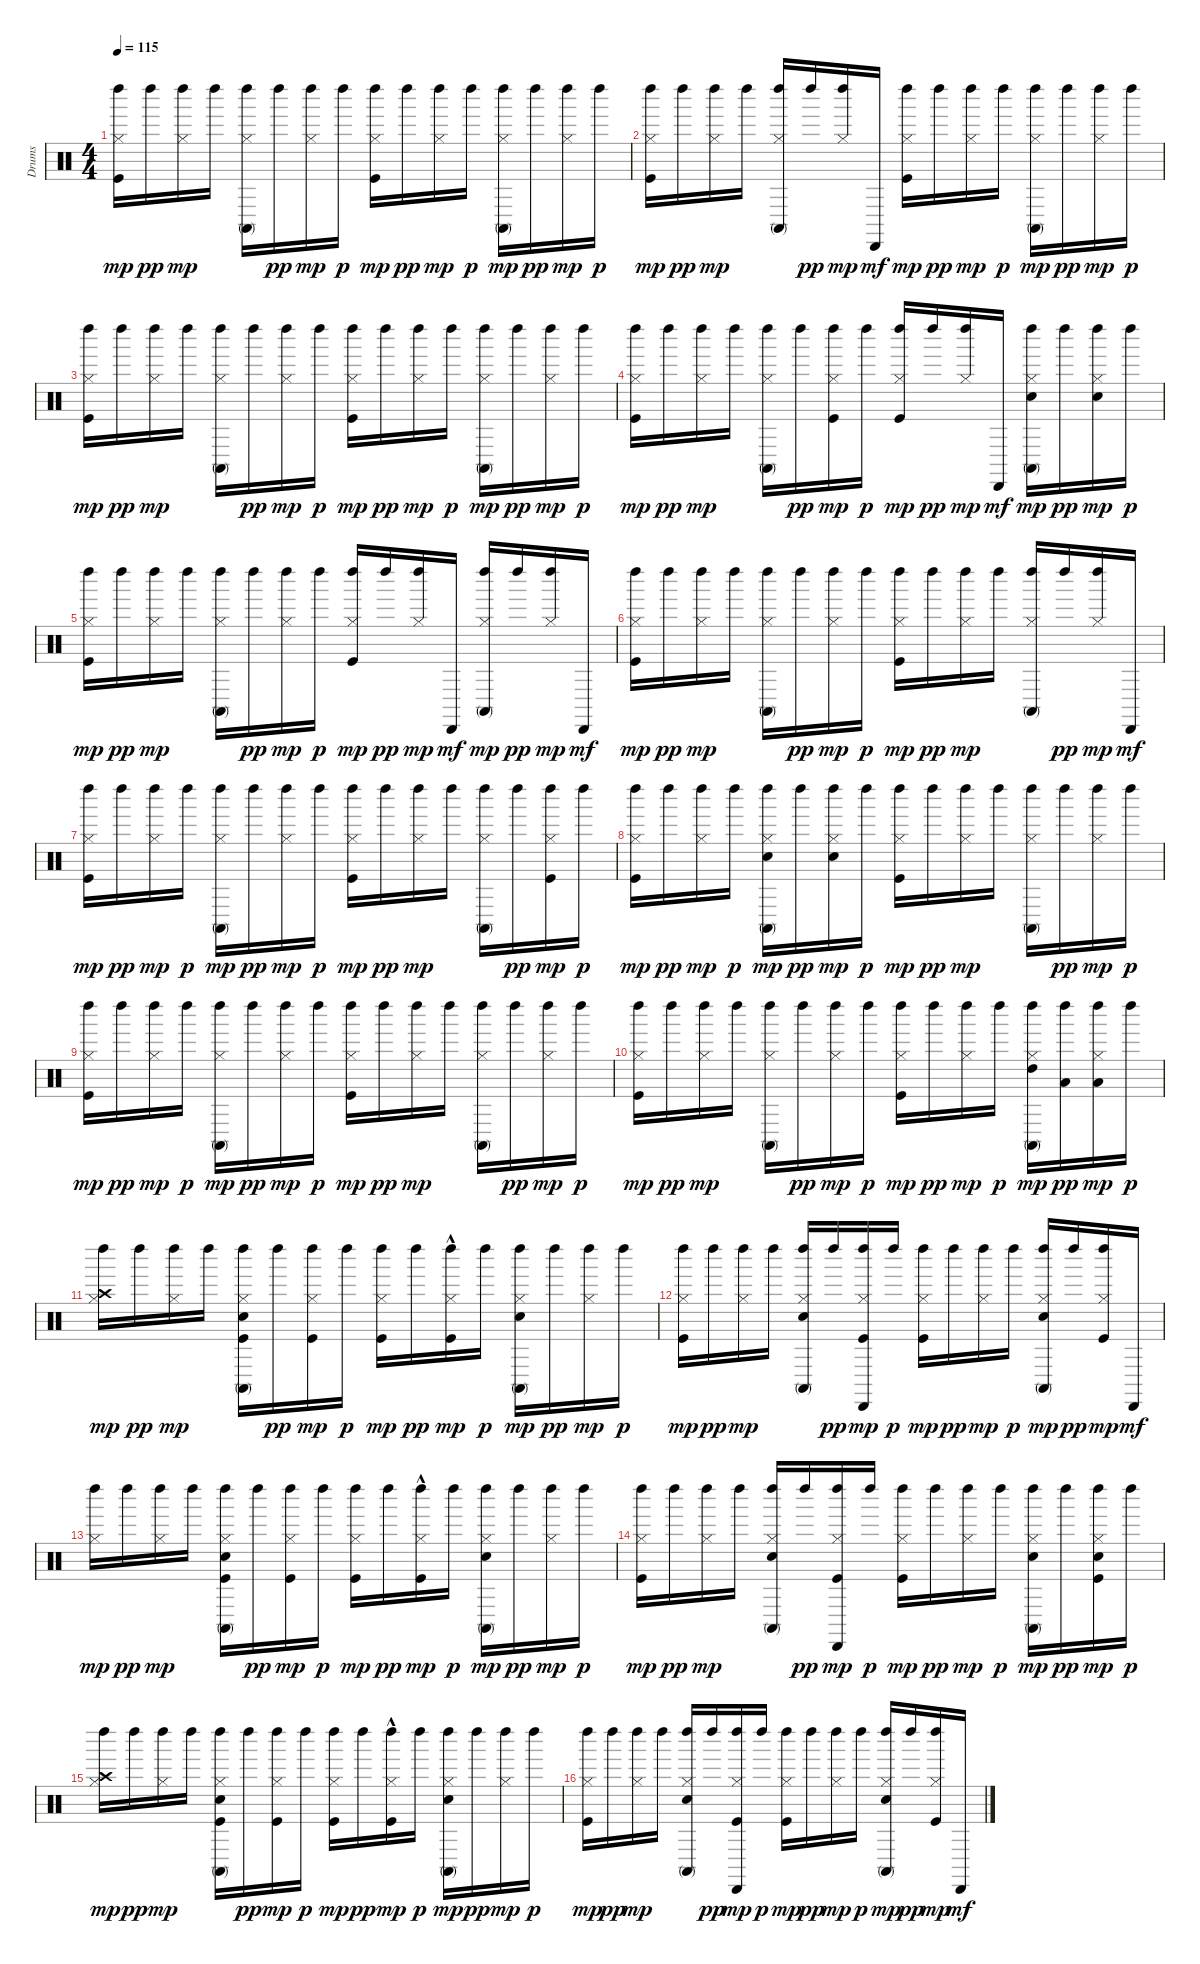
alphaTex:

\track ("Drums" "Drums") {instrument percussion}
\staff {score}
\articulation defaults
\ts (4 4)
\tempo 115
\clef neutral
\ks c
("Kick (hit)" "Hi-Hat (closed)" "Left Maraca (hit)").16{dy mp} "Left Maraca (hit)".16{dy pp} ("Hi-Hat (closed)" "Left Maraca (hit)").16{dy mp} "Left Maraca (hit)".16 ("Hi-Hat (closed)" "Conga high (mute)" "Left Maraca (hit)").16 "Left Maraca (hit)".16{dy pp} ("Hi-Hat (closed)" "Left Maraca (hit)").16{dy mp} "Left Maraca (hit)".16{dy p} ("Kick (hit)" "Hi-Hat (closed)" "Left Maraca (hit)").16{dy mp} "Left Maraca (hit)".16{dy pp} ("Hi-Hat (closed)" "Left Maraca (hit)").16{dy mp} "Left Maraca (hit)".16{dy p} ("Hi-Hat (closed)" "Conga high (mute)" "Left Maraca (hit)").16{dy mp} "Left Maraca (hit)".16{dy pp} ("Hi-Hat (closed)" "Left Maraca (hit)").16{dy mp} "Left Maraca (hit)".16{dy p} |
("Kick (hit)" "Hi-Hat (closed)" "Left Maraca (hit)").16{dy mp} "Left Maraca (hit)".16{dy pp} ("Hi-Hat (closed)" "Left Maraca (hit)").16{dy mp} "Left Maraca (hit)".16 ("Hi-Hat (closed)" "Conga high (mute)" "Left Maraca (hit)").16 "Left Maraca (hit)".16{dy pp} ("Hi-Hat (closed)" "Left Maraca (hit)").16{dy mp} "Cabasa (hit)".16{dy mf} ("Kick (hit)" "Hi-Hat (closed)" "Left Maraca (hit)").16{dy mp} "Left Maraca (hit)".16{dy pp} ("Hi-Hat (closed)" "Left Maraca (hit)").16{dy mp} "Left Maraca (hit)".16{dy p} ("Hi-Hat (closed)" "Conga high (mute)" "Left Maraca (hit)").16{dy mp} "Left Maraca (hit)".16{dy pp} ("Hi-Hat (closed)" "Left Maraca (hit)").16{dy mp} "Left Maraca (hit)".16{dy p} |
("Kick (hit)" "Hi-Hat (closed)" "Left Maraca (hit)").16{dy mp} "Left Maraca (hit)".16{dy pp} ("Hi-Hat (closed)" "Left Maraca (hit)").16{dy mp} "Left Maraca (hit)".16 ("Hi-Hat (closed)" "Conga high (mute)" "Left Maraca (hit)").16 "Left Maraca (hit)".16{dy pp} ("Hi-Hat (closed)" "Left Maraca (hit)").16{dy mp} "Left Maraca (hit)".16{dy p} ("Kick (hit)" "Hi-Hat (closed)" "Left Maraca (hit)").16{dy mp} "Left Maraca (hit)".16{dy pp} ("Hi-Hat (closed)" "Left Maraca (hit)").16{dy mp} "Left Maraca (hit)".16{dy p} ("Hi-Hat (closed)" "Conga high (mute)" "Left Maraca (hit)").16{dy mp} "Left Maraca (hit)".16{dy pp} ("Hi-Hat (closed)" "Left Maraca (hit)").16{dy mp} "Left Maraca (hit)".16{dy p} |
("Kick (hit)" "Hi-Hat (closed)" "Left Maraca (hit)").16{dy mp} "Left Maraca (hit)".16{dy pp} ("Hi-Hat (closed)" "Left Maraca (hit)").16{dy mp} "Left Maraca (hit)".16 ("Hi-Hat (closed)" "Conga high (mute)" "Left Maraca (hit)").16 "Left Maraca (hit)".16{dy pp} ("Kick (hit)" "Hi-Hat (closed)" "Left Maraca (hit)").16{dy mp} "Left Maraca (hit)".16{dy p} ("Kick (hit)" "Hi-Hat (closed)" "Left Maraca (hit)").16{dy mp} "Left Maraca (hit)".16{dy pp} ("Hi-Hat (closed)" "Left Maraca (hit)").16{dy mp} "Cabasa (hit)".16{dy mf} ("Snare (hit) 2" "Hi-Hat (closed)" "Conga high (mute)" "Left Maraca (hit)").16{dy mp} "Left Maraca (hit)".16{dy pp} ("Snare (hit) 2" "Hi-Hat (closed)" "Left Maraca (hit)").16{dy mp} "Left Maraca (hit)".16{dy p} |
("Kick (hit)" "Hi-Hat (closed)" "Left Maraca (hit)").16{dy mp} "Left Maraca (hit)".16{dy pp} ("Hi-Hat (closed)" "Left Maraca (hit)").16{dy mp} "Left Maraca (hit)".16 ("Hi-Hat (closed)" "Conga high (mute)" "Left Maraca (hit)").16 "Left Maraca (hit)".16{dy pp} ("Hi-Hat (closed)" "Left Maraca (hit)").16{dy mp} "Left Maraca (hit)".16{dy p} ("Kick (hit)" "Hi-Hat (closed)" "Left Maraca (hit)").16{dy mp} "Left Maraca (hit)".16{dy pp} ("Hi-Hat (closed)" "Left Maraca (hit)").16{dy mp} "Cabasa (hit)".16{dy mf} ("Hi-Hat (closed)" "Conga high (mute)" "Left Maraca (hit)").16{dy mp} "Left Maraca (hit)".16{dy pp} ("Hi-Hat (closed)" "Left Maraca (hit)").16{dy mp} "Cabasa (hit)".16{dy mf} |
("Kick (hit)" "Hi-Hat (closed)" "Left Maraca (hit)").16{dy mp} "Left Maraca (hit)".16{dy pp} ("Hi-Hat (closed)" "Left Maraca (hit)").16{dy mp} "Left Maraca (hit)".16 ("Hi-Hat (closed)" "Conga high (mute)" "Left Maraca (hit)").16 "Left Maraca (hit)".16{dy pp} ("Hi-Hat (closed)" "Left Maraca (hit)").16{dy mp} "Left Maraca (hit)".16{dy p} ("Kick (hit)" "Hi-Hat (closed)" "Left Maraca (hit)").16{dy mp} "Left Maraca (hit)".16{dy pp} ("Hi-Hat (closed)" "Left Maraca (hit)").16{dy mp} "Left Maraca (hit)".16 ("Hi-Hat (closed)" "Conga high (mute)" "Left Maraca (hit)").16 "Left Maraca (hit)".16{dy pp} ("Hi-Hat (closed)" "Left Maraca (hit)").16{dy mp} "Cabasa (hit)".16{dy mf} |
("Kick (hit)" "Hi-Hat (closed)" "Left Maraca (hit)").16{dy mp} "Left Maraca (hit)".16{dy pp} ("Hi-Hat (closed)" "Left Maraca (hit)").16{dy mp} "Left Maraca (hit)".16{dy p} ("Hi-Hat (closed)" "Conga high (mute)" "Left Maraca (hit)").16{dy mp} "Left Maraca (hit)".16{dy pp} ("Hi-Hat (closed)" "Left Maraca (hit)").16{dy mp} "Left Maraca (hit)".16{dy p} ("Kick (hit)" "Hi-Hat (closed)" "Left Maraca (hit)").16{dy mp} "Left Maraca (hit)".16{dy pp} ("Hi-Hat (closed)" "Left Maraca (hit)").16{dy mp} "Left Maraca (hit)".16 ("Hi-Hat (closed)" "Conga high (mute)" "Left Maraca (hit)").16 "Left Maraca (hit)".16{dy pp} ("Kick (hit)" "Hi-Hat (closed)" "Left Maraca (hit)").16{dy mp} "Left Maraca (hit)".16{dy p} |
("Kick (hit)" "Hi-Hat (closed)" "Left Maraca (hit)").16{dy mp} "Left Maraca (hit)".16{dy pp} ("Hi-Hat (closed)" "Left Maraca (hit)").16{dy mp} "Left Maraca (hit)".16{dy p} ("Snare (hit) 2" "Hi-Hat (closed)" "Conga high (mute)" "Left Maraca (hit)").16{dy mp} "Left Maraca (hit)".16{dy pp} ("Snare (hit) 2" "Hi-Hat (closed)" "Left Maraca (hit)").16{dy mp} "Left Maraca (hit)".16{dy p} ("Kick (hit)" "Hi-Hat (closed)" "Left Maraca (hit)").16{dy mp} "Left Maraca (hit)".16{dy pp} ("Hi-Hat (closed)" "Left Maraca (hit)").16{dy mp} "Left Maraca (hit)".16 ("Hi-Hat (closed)" "Conga high (mute)" "Left Maraca (hit)").16 "Left Maraca (hit)".16{dy pp} ("Hi-Hat (closed)" "Left Maraca (hit)").16{dy mp} "Left Maraca (hit)".16{dy p} |
("Kick (hit)" "Hi-Hat (closed)" "Left Maraca (hit)").16{dy mp} "Left Maraca (hit)".16{dy pp} ("Hi-Hat (closed)" "Left Maraca (hit)").16{dy mp} "Left Maraca (hit)".16{dy p} ("Hi-Hat (closed)" "Conga high (mute)" "Left Maraca (hit)").16{dy mp} "Left Maraca (hit)".16{dy pp} ("Hi-Hat (closed)" "Left Maraca (hit)").16{dy mp} "Left Maraca (hit)".16{dy p} ("Kick (hit)" "Hi-Hat (closed)" "Left Maraca (hit)").16{dy mp} "Left Maraca (hit)".16{dy pp} ("Hi-Hat (closed)" "Left Maraca (hit)").16{dy mp} "Left Maraca (hit)".16 ("Hi-Hat (closed)" "Conga high (mute)" "Left Maraca (hit)").16 "Left Maraca (hit)".16{dy pp} ("Hi-Hat (closed)" "Left Maraca (hit)").16{dy mp} "Left Maraca (hit)".16{dy p} |
("Kick (hit)" "Hi-Hat (closed)" "Left Maraca (hit)").16{dy mp} "Left Maraca (hit)".16{dy pp} ("Hi-Hat (closed)" "Left Maraca (hit)").16{dy mp} "Left Maraca (hit)".16 ("Hi-Hat (closed)" "Conga high (mute)" "Left Maraca (hit)").16 "Left Maraca (hit)".16{dy pp} ("Hi-Hat (closed)" "Left Maraca (hit)").16{dy mp} "Left Maraca (hit)".16{dy p} ("Kick (hit)" "Hi-Hat (closed)" "Left Maraca (hit)").16{dy mp} "Left Maraca (hit)".16{dy pp} ("Hi-Hat (closed)" "Left Maraca (hit)").16{dy mp} "Left Maraca (hit)".16{dy p} ("Hi-Hat (closed)" "High Tom (hit)" "Conga high (mute)" "Left Maraca (hit)").16{dy mp} ("Low Tom (hit)" "Left Maraca (hit)").16{dy pp} ("Hi-Hat (closed)" "Low Floor Tom (hit)" "Left Maraca (hit)").16{dy mp} "Left Maraca (hit)".16{dy p} |
("Hi-Hat (closed)" "Crash high (hit)" "Left Maraca (hit)").16{dy mp} "Left Maraca (hit)".16{dy pp} ("Hi-Hat (closed)" "Left Maraca (hit)").16{dy mp} "Left Maraca (hit)".16 ("Kick (hit)" "Snare (hit) 2" "Hi-Hat (closed)" "Conga high (mute)" "Left Maraca (hit)").16 "Left Maraca (hit)".16{dy pp} ("Kick (hit)" "Hi-Hat (closed)" "Left Maraca (hit)").16{dy mp} "Left Maraca (hit)".16{dy p} ("Kick (hit)" "Hi-Hat (closed)" "Left Maraca (hit)").16{dy mp} "Left Maraca (hit)".16{dy pp} ("Kick (hit)"{hac} "Hi-Hat (closed)" "Left Maraca (hit)").16{dy mp} "Left Maraca (hit)".16{dy p} ("Snare (hit) 2" "Hi-Hat (closed)" "Conga high (mute)" "Left Maraca (hit)").16{dy mp} "Left Maraca (hit)".16{dy pp} ("Hi-Hat (closed)" "Left Maraca (hit)").16{dy mp} "Left Maraca (hit)".16{dy p} |
("Kick (hit)" "Hi-Hat (closed)" "Left Maraca (hit)").16{dy mp} "Left Maraca (hit)".16{dy pp} ("Hi-Hat (closed)" "Left Maraca (hit)").16{dy mp} "Left Maraca (hit)".16 ("Snare (hit) 2" "Hi-Hat (closed)" "Conga high (mute)" "Left Maraca (hit)").16 "Left Maraca (hit)".16{dy pp} ("Kick (hit)" "Hi-Hat (closed)" "Left Maraca (hit)" "Cabasa (hit)").16{dy mp} "Left Maraca (hit)".16{dy p} ("Kick (hit)" "Hi-Hat (closed)" "Left Maraca (hit)").16{dy mp} "Left Maraca (hit)".16{dy pp} ("Hi-Hat (closed)" "Left Maraca (hit)").16{dy mp} "Left Maraca (hit)".16{dy p} ("Snare (hit) 2" "Hi-Hat (closed)" "Conga high (mute)" "Left Maraca (hit)").16{dy mp} "Left Maraca (hit)".16{dy pp} ("Kick (hit)" "Hi-Hat (closed)" "Left Maraca (hit)").16{dy mp} "Cabasa (hit)".16{dy mf} |
("Hi-Hat (closed)" "Left Maraca (hit)").16{dy mp} "Left Maraca (hit)".16{dy pp} ("Hi-Hat (closed)" "Left Maraca (hit)").16{dy mp} "Left Maraca (hit)".16 ("Kick (hit)" "Snare (hit) 2" "Hi-Hat (closed)" "Conga high (mute)" "Left Maraca (hit)").16 "Left Maraca (hit)".16{dy pp} ("Kick (hit)" "Hi-Hat (closed)" "Left Maraca (hit)").16{dy mp} "Left Maraca (hit)".16{dy p} ("Kick (hit)" "Hi-Hat (closed)" "Left Maraca (hit)").16{dy mp} "Left Maraca (hit)".16{dy pp} ("Kick (hit)"{hac} "Hi-Hat (closed)" "Left Maraca (hit)").16{dy mp} "Left Maraca (hit)".16{dy p} ("Snare (hit) 2" "Hi-Hat (closed)" "Conga high (mute)" "Left Maraca (hit)").16{dy mp} "Left Maraca (hit)".16{dy pp} ("Hi-Hat (closed)" "Left Maraca (hit)").16{dy mp} "Left Maraca (hit)".16{dy p} |
("Kick (hit)" "Hi-Hat (closed)" "Left Maraca (hit)").16{dy mp} "Left Maraca (hit)".16{dy pp} ("Hi-Hat (closed)" "Left Maraca (hit)").16{dy mp} "Left Maraca (hit)".16 ("Snare (hit) 2" "Hi-Hat (closed)" "Conga high (mute)" "Left Maraca (hit)").16 "Left Maraca (hit)".16{dy pp} ("Kick (hit)" "Hi-Hat (closed)" "Left Maraca (hit)" "Cabasa (hit)").16{dy mp} "Left Maraca (hit)".16{dy p} ("Kick (hit)" "Hi-Hat (closed)" "Left Maraca (hit)").16{dy mp} "Left Maraca (hit)".16{dy pp} ("Hi-Hat (closed)" "Left Maraca (hit)").16{dy mp} "Left Maraca (hit)".16{dy p} ("Snare (hit) 2" "Hi-Hat (closed)" "Conga high (mute)" "Left Maraca (hit)").16{dy mp} "Left Maraca (hit)".16{dy pp} ("Kick (hit)" "Snare (hit) 2" "Hi-Hat (closed)" "Left Maraca (hit)").16{dy mp} "Left Maraca (hit)".16{dy p} |
("Hi-Hat (closed)" "Crash high (hit)" "Left Maraca (hit)").16{dy mp} "Left Maraca (hit)".16{dy pp} ("Hi-Hat (closed)" "Left Maraca (hit)").16{dy mp} "Left Maraca (hit)".16 ("Kick (hit)" "Snare (hit) 2" "Hi-Hat (closed)" "Conga high (mute)" "Left Maraca (hit)").16 "Left Maraca (hit)".16{dy pp} ("Kick (hit)" "Hi-Hat (closed)" "Left Maraca (hit)").16{dy mp} "Left Maraca (hit)".16{dy p} ("Kick (hit)" "Hi-Hat (closed)" "Left Maraca (hit)").16{dy mp} "Left Maraca (hit)".16{dy pp} ("Kick (hit)"{hac} "Hi-Hat (closed)" "Left Maraca (hit)").16{dy mp} "Left Maraca (hit)".16{dy p} ("Snare (hit) 2" "Hi-Hat (closed)" "Conga high (mute)" "Left Maraca (hit)").16{dy mp} "Left Maraca (hit)".16{dy pp} ("Hi-Hat (closed)" "Left Maraca (hit)").16{dy mp} "Left Maraca (hit)".16{dy p} |
("Kick (hit)" "Hi-Hat (closed)" "Left Maraca (hit)").16{dy mp} "Left Maraca (hit)".16{dy pp} ("Hi-Hat (closed)" "Left Maraca (hit)").16{dy mp} "Left Maraca (hit)".16 ("Snare (hit) 2" "Hi-Hat (closed)" "Conga high (mute)" "Left Maraca (hit)").16 "Left Maraca (hit)".16{dy pp} ("Kick (hit)" "Hi-Hat (closed)" "Left Maraca (hit)" "Cabasa (hit)").16{dy mp} "Left Maraca (hit)".16{dy p} ("Kick (hit)" "Hi-Hat (closed)" "Left Maraca (hit)").16{dy mp} "Left Maraca (hit)".16{dy pp} ("Hi-Hat (closed)" "Left Maraca (hit)").16{dy mp} "Left Maraca (hit)".16{dy p} ("Snare (hit) 2" "Hi-Hat (closed)" "Conga high (mute)" "Left Maraca (hit)").16{dy mp} "Left Maraca (hit)".16{dy pp} ("Kick (hit)" "Hi-Hat (closed)" "Left Maraca (hit)").16{dy mp} "Cabasa (hit)".16{dy mf}
